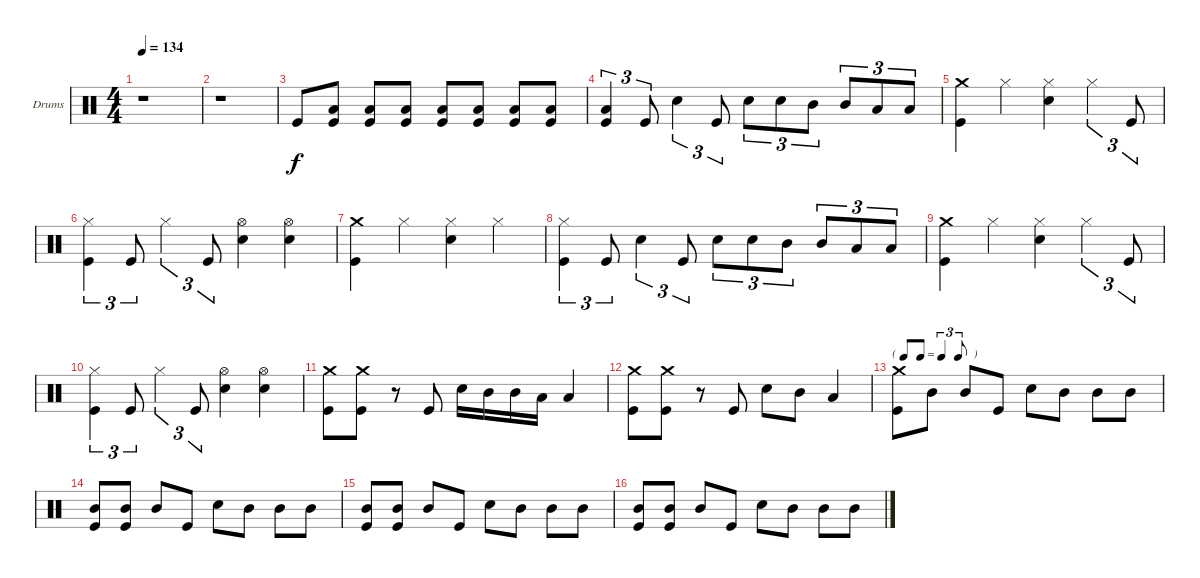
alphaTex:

\defaultSystemsLayout 4
\bracketExtendMode groupsimilarinstruments
\firstSystemTrackNameOrientation horizontal
\otherSystemsTrackNameOrientation horizontal
\track ("Drumkit" "Drums") {instrument percussion}
\staff {score}
\articulation defaults
\ts (4 4)
\tempo 134
\clef neutral
\ks c
r.1{dy f} |
r.1 |
"Kick (hit)".8 ("Kick (hit)" "Low Tom (hit)").8 ("Kick (hit)" "Low Tom (hit)").8 ("Kick (hit)" "Low Tom (hit)").8 ("Kick (hit)" "Low Tom (hit)").8 ("Kick (hit)" "Low Tom (hit)").8 ("Kick (hit)" "Low Tom (hit)").8 ("Kick (hit)" "Low Tom (hit)").8 |
("Kick (hit)" "Low Tom (hit)").4{tu (3 2)} "Kick (hit)".8{tu (3 2)} "Snare (hit) 2".4{tu (3 2)} "Kick (hit)".8{tu (3 2)} "Snare (hit) 2".8{tu (3 2)} "Snare (hit) 2".8{tu (3 2)} "Mid Tom (hit)".8{tu (3 2)} "Mid Tom (hit)".8{tu (3 2)} "Low Tom (hit)".8{tu (3 2)} "Low Tom (hit)".8{tu (3 2)} |
("Kick (hit)" "Crash medium (hit)").4 "Hi-Hat (closed)".4 ("Snare (hit) 2" "Hi-Hat (closed)").4 "Hi-Hat (closed)".4{tu (3 2)} "Kick (hit)".8{tu (3 2)} |
("Kick (hit)" "Hi-Hat (closed)").4{tu (3 2)} "Kick (hit)".8{tu (3 2)} "Hi-Hat (closed)".4{tu (3 2)} "Kick (hit)".8{tu (3 2)} ("Snare (hit) 2" "Hi-Hat (open)").4 ("Hi-Hat (open)" "Snare (hit) 2").4 |
("Kick (hit)" "Crash medium (hit)").4 "Hi-Hat (closed)".4 ("Hi-Hat (closed)" "Snare (hit) 2").4 "Hi-Hat (closed)".4 |
("Kick (hit)" "Hi-Hat (closed)").4{tu (3 2)} "Kick (hit)".8{tu (3 2)} "Snare (hit) 2".4{tu (3 2)} "Kick (hit)".8{tu (3 2)} "Snare (hit) 2".8{tu (3 2)} "Snare (hit) 2".8{tu (3 2)} "Mid Tom (hit)".8{tu (3 2)} "Mid Tom (hit)".8{tu (3 2)} "Low Tom (hit)".8{tu (3 2)} "Low Tom (hit)".8{tu (3 2)} |
("Kick (hit)" "Crash medium (hit)").4 "Hi-Hat (closed)".4 ("Snare (hit) 2" "Hi-Hat (closed)").4 "Hi-Hat (closed)".4{tu (3 2)} "Kick (hit)".8{tu (3 2)} |
("Kick (hit)" "Hi-Hat (closed)").4{tu (3 2)} "Kick (hit)".8{tu (3 2)} "Hi-Hat (closed)".4{tu (3 2)} "Kick (hit)".8{tu (3 2)} ("Snare (hit) 2" "Hi-Hat (open)").4 ("Hi-Hat (open)" "Snare (hit) 2").4 |
("Kick (hit)" "Crash medium (hit)").8 ("Kick (hit)" "Crash medium (hit)").8 r.8 "Kick (hit)".8 "Snare (hit) 2".16 "Mid Tom (hit)".16 "Mid Tom (hit)".16 "Low Tom (hit)".16 "Low Tom (hit)".4 |
("Kick (hit)" "Crash medium (hit)").8 ("Kick (hit)" "Crash medium (hit)").8 r.8 "Kick (hit)".8 "Snare (hit) 2".8 "Mid Tom (hit)".8 "Low Tom (hit)".4 |
\tf triplet8th
("Kick (hit)" "Crash medium (hit)").8 "Mid Tom (hit)".8 "Mid Tom (hit)".8 "Kick (hit)".8 "Snare (hit) 2".8 "Mid Tom (hit)".8 "Mid Tom (hit)".8 "Mid Tom (hit)".8 |
("Kick (hit)" "Mid Tom (hit)").8 ("Mid Tom (hit)" "Kick (hit)").8 "Mid Tom (hit)".8 "Kick (hit)".8 "Snare (hit) 2".8 "Mid Tom (hit)".8 "Mid Tom (hit)".8 "Mid Tom (hit)".8 |
("Kick (hit)" "Mid Tom (hit)").8 ("Mid Tom (hit)" "Kick (hit)").8 "Mid Tom (hit)".8 "Kick (hit)".8 "Snare (hit) 2".8 "Mid Tom (hit)".8 "Mid Tom (hit)".8 "Mid Tom (hit)".8 |
("Kick (hit)" "Mid Tom (hit)").8 ("Mid Tom (hit)" "Kick (hit)").8 "Mid Tom (hit)".8 "Kick (hit)".8 "Snare (hit) 2".8 "Mid Tom (hit)".8 "Mid Tom (hit)".8 "Mid Tom (hit)".8
